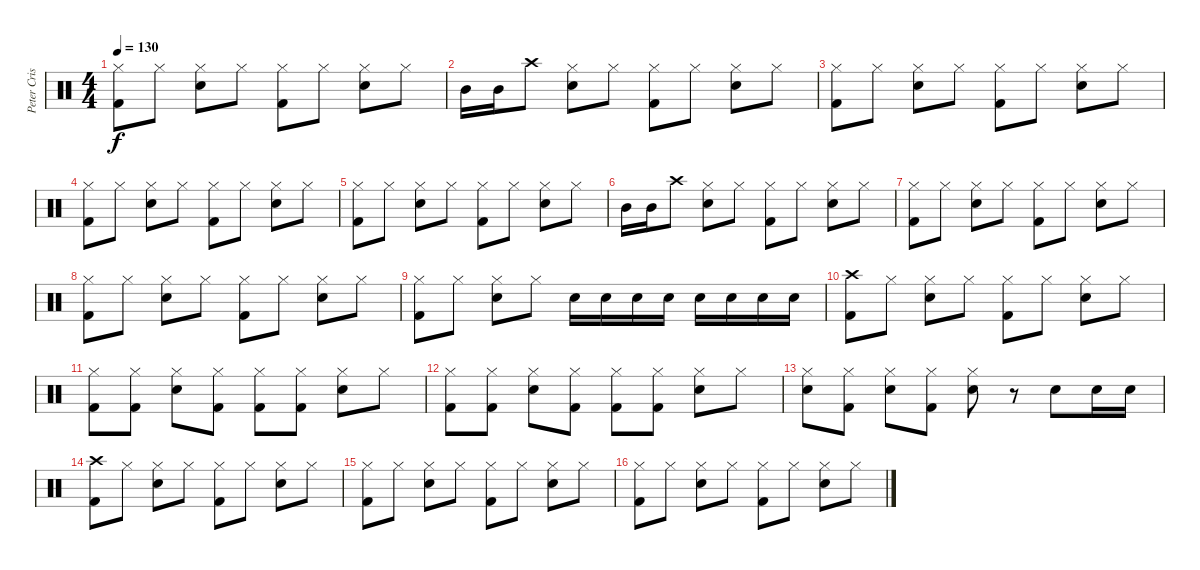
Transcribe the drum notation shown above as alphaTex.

\track ("Peter Criss" "Peter Cris") {instrument percussion}
\staff {score}
\articulation defaults
\ts (4 4)
\tempo 130
\clef neutral
\ks c
("Hi-Hat (closed)" "Kick (hit) 2").8{dy f} "Hi-Hat (closed)".8 ("Hi-Hat (closed)" "Electric Snare (hit)").8 "Hi-Hat (closed)".8 ("Hi-Hat (closed)" "Kick (hit) 2").8 "Hi-Hat (closed)".8 ("Hi-Hat (closed)" "Electric Snare (hit)").8 "Hi-Hat (closed)".8 |
"Mid Tom (hit)".16 "Mid Tom (hit)".16 "Crash high (hit)".8 ("Hi-Hat (closed)" "Electric Snare (hit)").8 "Hi-Hat (closed)".8 ("Hi-Hat (closed)" "Kick (hit) 2").8 "Hi-Hat (closed)".8 ("Hi-Hat (closed)" "Electric Snare (hit)").8 "Hi-Hat (closed)".8 |
("Hi-Hat (closed)" "Kick (hit) 2").8 "Hi-Hat (closed)".8 ("Hi-Hat (closed)" "Electric Snare (hit)").8 "Hi-Hat (closed)".8 ("Hi-Hat (closed)" "Kick (hit) 2").8 "Hi-Hat (closed)".8 ("Hi-Hat (closed)" "Electric Snare (hit)").8 "Hi-Hat (closed)".8 |
("Hi-Hat (closed)" "Kick (hit) 2").8 "Hi-Hat (closed)".8 ("Hi-Hat (closed)" "Electric Snare (hit)").8 "Hi-Hat (closed)".8 ("Hi-Hat (closed)" "Kick (hit) 2").8 "Hi-Hat (closed)".8 ("Hi-Hat (closed)" "Electric Snare (hit)").8 "Hi-Hat (closed)".8 |
("Hi-Hat (closed)" "Kick (hit) 2").8 "Hi-Hat (closed)".8 ("Hi-Hat (closed)" "Electric Snare (hit)").8 "Hi-Hat (closed)".8 ("Hi-Hat (closed)" "Kick (hit) 2").8 "Hi-Hat (closed)".8 ("Hi-Hat (closed)" "Electric Snare (hit)").8 "Hi-Hat (closed)".8 |
"Mid Tom (hit)".16 "Mid Tom (hit)".16 "Crash high (hit)".8 ("Hi-Hat (closed)" "Electric Snare (hit)").8 "Hi-Hat (closed)".8 ("Hi-Hat (closed)" "Kick (hit) 2").8 "Hi-Hat (closed)".8 ("Hi-Hat (closed)" "Electric Snare (hit)").8 "Hi-Hat (closed)".8 |
("Hi-Hat (closed)" "Kick (hit) 2").8 "Hi-Hat (closed)".8 ("Hi-Hat (closed)" "Electric Snare (hit)").8 "Hi-Hat (closed)".8 ("Hi-Hat (closed)" "Kick (hit) 2").8 "Hi-Hat (closed)".8 ("Hi-Hat (closed)" "Electric Snare (hit)").8 "Hi-Hat (closed)".8 |
("Hi-Hat (closed)" "Kick (hit) 2").8 "Hi-Hat (closed)".8 ("Hi-Hat (closed)" "Electric Snare (hit)").8 "Hi-Hat (closed)".8 ("Hi-Hat (closed)" "Kick (hit) 2").8 "Hi-Hat (closed)".8 ("Hi-Hat (closed)" "Electric Snare (hit)").8 "Hi-Hat (closed)".8 |
("Hi-Hat (closed)" "Kick (hit) 2").8 "Hi-Hat (closed)".8 ("Hi-Hat (closed)" "Electric Snare (hit)").8 "Hi-Hat (closed)".8 "Electric Snare (hit)".16 "Electric Snare (hit)".16 "Electric Snare (hit)".16 "Electric Snare (hit)".16 "Electric Snare (hit)".16 "Electric Snare (hit)".16 "Electric Snare (hit)".16 "Electric Snare (hit)".16 |
("Crash high (hit)" "Kick (hit) 2").8 "Hi-Hat (closed)".8 ("Hi-Hat (closed)" "Electric Snare (hit)").8 "Hi-Hat (closed)".8 ("Hi-Hat (closed)" "Kick (hit) 2").8 "Hi-Hat (closed)".8 ("Hi-Hat (closed)" "Electric Snare (hit)").8 "Hi-Hat (closed)".8 |
("Hi-Hat (closed)" "Kick (hit) 2").8 ("Hi-Hat (closed)" "Kick (hit) 2").8 ("Hi-Hat (closed)" "Electric Snare (hit)").8 ("Hi-Hat (closed)" "Kick (hit) 2").8 ("Hi-Hat (closed)" "Kick (hit) 2").8 ("Hi-Hat (closed)" "Kick (hit) 2").8 ("Hi-Hat (closed)" "Electric Snare (hit)").8 "Hi-Hat (closed)".8 |
("Hi-Hat (closed)" "Kick (hit) 2").8 ("Hi-Hat (closed)" "Kick (hit) 2").8 ("Hi-Hat (closed)" "Electric Snare (hit)").8 ("Hi-Hat (closed)" "Kick (hit) 2").8 ("Hi-Hat (closed)" "Kick (hit) 2").8 ("Hi-Hat (closed)" "Kick (hit) 2").8 ("Hi-Hat (closed)" "Electric Snare (hit)").8 "Hi-Hat (closed)".8 |
("Hi-Hat (closed)" "Electric Snare (hit)").8 ("Hi-Hat (closed)" "Kick (hit) 2").8 ("Hi-Hat (closed)" "Electric Snare (hit)").8 ("Hi-Hat (closed)" "Kick (hit) 2").8 ("Hi-Hat (closed)" "Electric Snare (hit)").8 r.8 "Electric Snare (hit)".8 "Electric Snare (hit)".16 "Electric Snare (hit)".16 |
("Crash high (hit)" "Kick (hit) 2").8 "Hi-Hat (closed)".8 ("Hi-Hat (closed)" "Electric Snare (hit)").8 "Hi-Hat (closed)".8 ("Hi-Hat (closed)" "Kick (hit) 2").8 "Hi-Hat (closed)".8 ("Hi-Hat (closed)" "Electric Snare (hit)").8 "Hi-Hat (closed)".8 |
("Hi-Hat (closed)" "Kick (hit) 2").8 "Hi-Hat (closed)".8 ("Hi-Hat (closed)" "Electric Snare (hit)").8 "Hi-Hat (closed)".8 ("Hi-Hat (closed)" "Kick (hit) 2").8 "Hi-Hat (closed)".8 ("Hi-Hat (closed)" "Electric Snare (hit)").8 "Hi-Hat (closed)".8 |
("Hi-Hat (closed)" "Kick (hit) 2").8 "Hi-Hat (closed)".8 ("Hi-Hat (closed)" "Electric Snare (hit)").8 "Hi-Hat (closed)".8 ("Hi-Hat (closed)" "Kick (hit) 2").8 "Hi-Hat (closed)".8 ("Hi-Hat (closed)" "Electric Snare (hit)").8 "Hi-Hat (closed)".8
